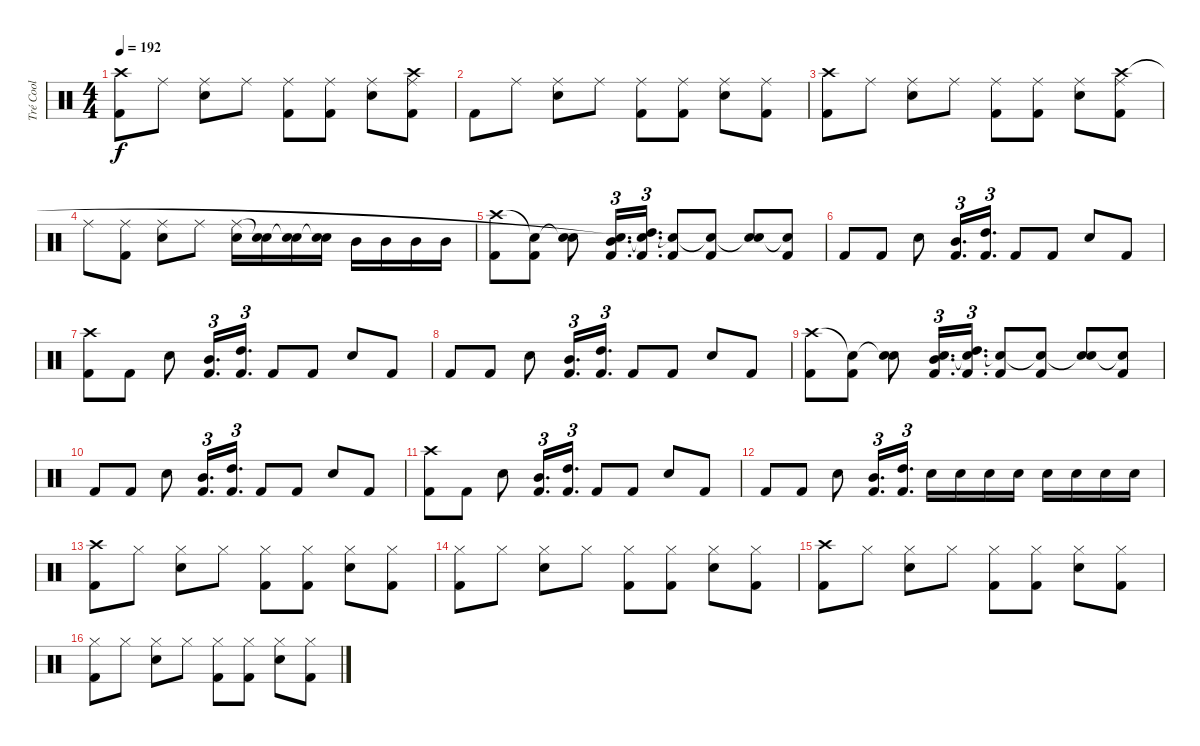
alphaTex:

\track ("Tré Cool" "Tré Cool") {solo instrument percussion}
\staff {score}
\articulation defaults
\ts (4 4)
\tempo 192
\clef neutral
\ks c
("Kick (hit) 2" "Crash high (hit)").8{dy f} "Ride (middle)".8 ("Ride (middle)" "Electric Snare (hit)").8 "Ride (middle)".8 ("Ride (middle)" "Kick (hit) 2").8 ("Ride (middle)" "Kick (hit) 2").8 ("Ride (middle)" "Electric Snare (hit)").8 ("Ride (middle)" "Kick (hit) 2" "Crash high (hit)").8 |
"Kick (hit) 2".8 "Ride (middle)".8 ("Ride (middle)" "Electric Snare (hit)").8 "Ride (middle)".8 ("Ride (middle)" "Kick (hit) 2").8 ("Ride (middle)" "Kick (hit) 2").8 ("Ride (middle)" "Electric Snare (hit)").8 ("Ride (middle)" "Kick (hit) 2").8 |
("Kick (hit) 2" "Crash high (hit)").8 "Ride (middle)".8 ("Ride (middle)" "Electric Snare (hit)").8 "Ride (middle)".8 ("Ride (middle)" "Kick (hit) 2").8 ("Ride (middle)" "Kick (hit) 2").8 ("Ride (middle)" "Electric Snare (hit)").8 ("Ride (middle)" "Kick (hit) 2" "Crash high (hit)").8 |
"Ride (middle)".8 ("Ride (middle)" "Kick (hit) 2").8 ("Ride (middle)" "Electric Snare (hit)").8 "Ride (middle)".8 ("Ride (middle)" "Electric Snare (hit)").16 ("Snare (hit)"{t} "Electric Snare (hit)").16 ("Snare (hit)"{t} "Electric Snare (hit)").16 ("Snare (hit)"{t} "Electric Snare (hit)").16 "Mid Tom (hit)".16 "Mid Tom (hit)".16 "Mid Tom (hit)".16 "Mid Tom (hit)".16 |
("Kick (hit) 2" "Crash high (hit)").8 ("Kick (hit) 2" "Snare (hit)"{t}).8 ("Electric Snare (hit)" "Snare (hit)"{t}).8 ("Kick (hit) 2" "Mid Tom (hit)" "Snare (hit)"{t}).16{d tu (3 2)} ("Kick (hit) 2" "High Tom (hit)" "Snare (hit)"{t}).16{d tu (3 2)} ("Kick (hit) 2" "Snare (hit)"{t}).8 ("Kick (hit) 2" "Snare (hit)"{t}).8 ("Electric Snare (hit)" "Snare (hit)"{t}).8 ("Kick (hit) 2" "Snare (hit)"{t}).8 |
"Kick (hit) 2".8 "Kick (hit) 2".8 "Electric Snare (hit)".8 ("Kick (hit) 2" "Mid Tom (hit)").16{d tu (3 2)} ("Kick (hit) 2" "High Tom (hit)").16{d tu (3 2)} "Kick (hit) 2".8 "Kick (hit) 2".8 "Electric Snare (hit)".8 "Kick (hit) 2".8 |
("Kick (hit) 2" "Crash high (hit)").8 "Kick (hit) 2".8 "Electric Snare (hit)".8 ("Kick (hit) 2" "Mid Tom (hit)").16{d tu (3 2)} ("Kick (hit) 2" "High Tom (hit)").16{d tu (3 2)} "Kick (hit) 2".8 "Kick (hit) 2".8 "Electric Snare (hit)".8 "Kick (hit) 2".8 |
"Kick (hit) 2".8 "Kick (hit) 2".8 "Electric Snare (hit)".8 ("Kick (hit) 2" "Mid Tom (hit)").16{d tu (3 2)} ("Kick (hit) 2" "High Tom (hit)").16{d tu (3 2)} "Kick (hit) 2".8 "Kick (hit) 2".8 "Electric Snare (hit)".8 "Kick (hit) 2".8 |
("Kick (hit) 2" "Crash high (hit)").8 ("Kick (hit) 2" "Snare (hit)"{t}).8 ("Electric Snare (hit)" "Snare (hit)"{t}).8 ("Kick (hit) 2" "Mid Tom (hit)" "Snare (hit)").16{d tu (3 2)} ("Kick (hit) 2" "High Tom (hit)" "Snare (hit)"{t}).16{d tu (3 2)} ("Kick (hit) 2" "Snare (hit)"{t}).8 ("Kick (hit) 2" "Snare (hit)"{t}).8 ("Electric Snare (hit)" "Snare (hit)"{t}).8 ("Kick (hit) 2" "Snare (hit)"{t}).8 |
"Kick (hit) 2".8 "Kick (hit) 2".8 "Electric Snare (hit)".8 ("Kick (hit) 2" "Mid Tom (hit)").16{d tu (3 2)} ("Kick (hit) 2" "High Tom (hit)").16{d tu (3 2)} "Kick (hit) 2".8 "Kick (hit) 2".8 "Electric Snare (hit)".8 "Kick (hit) 2".8 |
("Kick (hit) 2" "Crash high (hit)").8 "Kick (hit) 2".8 "Electric Snare (hit)".8 ("Kick (hit) 2" "Mid Tom (hit)").16{d tu (3 2)} ("Kick (hit) 2" "High Tom (hit)").16{d tu (3 2)} "Kick (hit) 2".8 "Kick (hit) 2".8 "Electric Snare (hit)".8 "Kick (hit) 2".8 |
"Kick (hit) 2".8 "Kick (hit) 2".8 "Electric Snare (hit)".8 ("Kick (hit) 2" "Mid Tom (hit)").16{d tu (3 2)} ("Kick (hit) 2" "High Tom (hit)").16{d tu (3 2)} "Electric Snare (hit)".16 "Electric Snare (hit)".16 "Electric Snare (hit)".16 "Electric Snare (hit)".16 "Electric Snare (hit)".16 "Electric Snare (hit)".16 "Electric Snare (hit)".16 "Electric Snare (hit)".16 |
("Kick (hit) 2" "Crash high (hit)").8 "Hi-Hat (closed)".8 ("Hi-Hat (closed)" "Electric Snare (hit)").8 "Hi-Hat (closed)".8 ("Hi-Hat (closed)" "Kick (hit) 2").8 ("Hi-Hat (closed)" "Kick (hit) 2").8 ("Hi-Hat (closed)" "Electric Snare (hit)").8 ("Hi-Hat (closed)" "Kick (hit) 2").8 |
("Hi-Hat (closed)" "Kick (hit) 2").8 "Hi-Hat (closed)".8 ("Hi-Hat (closed)" "Electric Snare (hit)").8 "Hi-Hat (closed)".8 ("Hi-Hat (closed)" "Kick (hit) 2").8 ("Hi-Hat (closed)" "Kick (hit) 2").8 ("Hi-Hat (closed)" "Electric Snare (hit)").8 ("Hi-Hat (closed)" "Kick (hit) 2").8 |
("Kick (hit) 2" "Crash high (hit)").8 "Hi-Hat (closed)".8 ("Hi-Hat (closed)" "Electric Snare (hit)").8 "Hi-Hat (closed)".8 ("Hi-Hat (closed)" "Kick (hit) 2").8 ("Hi-Hat (closed)" "Kick (hit) 2").8 ("Hi-Hat (closed)" "Electric Snare (hit)").8 ("Hi-Hat (closed)" "Kick (hit) 2").8 |
("Hi-Hat (closed)" "Kick (hit) 2").8 "Hi-Hat (closed)".8 ("Hi-Hat (closed)" "Electric Snare (hit)").8 "Hi-Hat (closed)".8 ("Hi-Hat (closed)" "Kick (hit) 2").8 ("Hi-Hat (closed)" "Kick (hit) 2").8 ("Hi-Hat (closed)" "Electric Snare (hit)").8 ("Hi-Hat (closed)" "Kick (hit) 2").8
